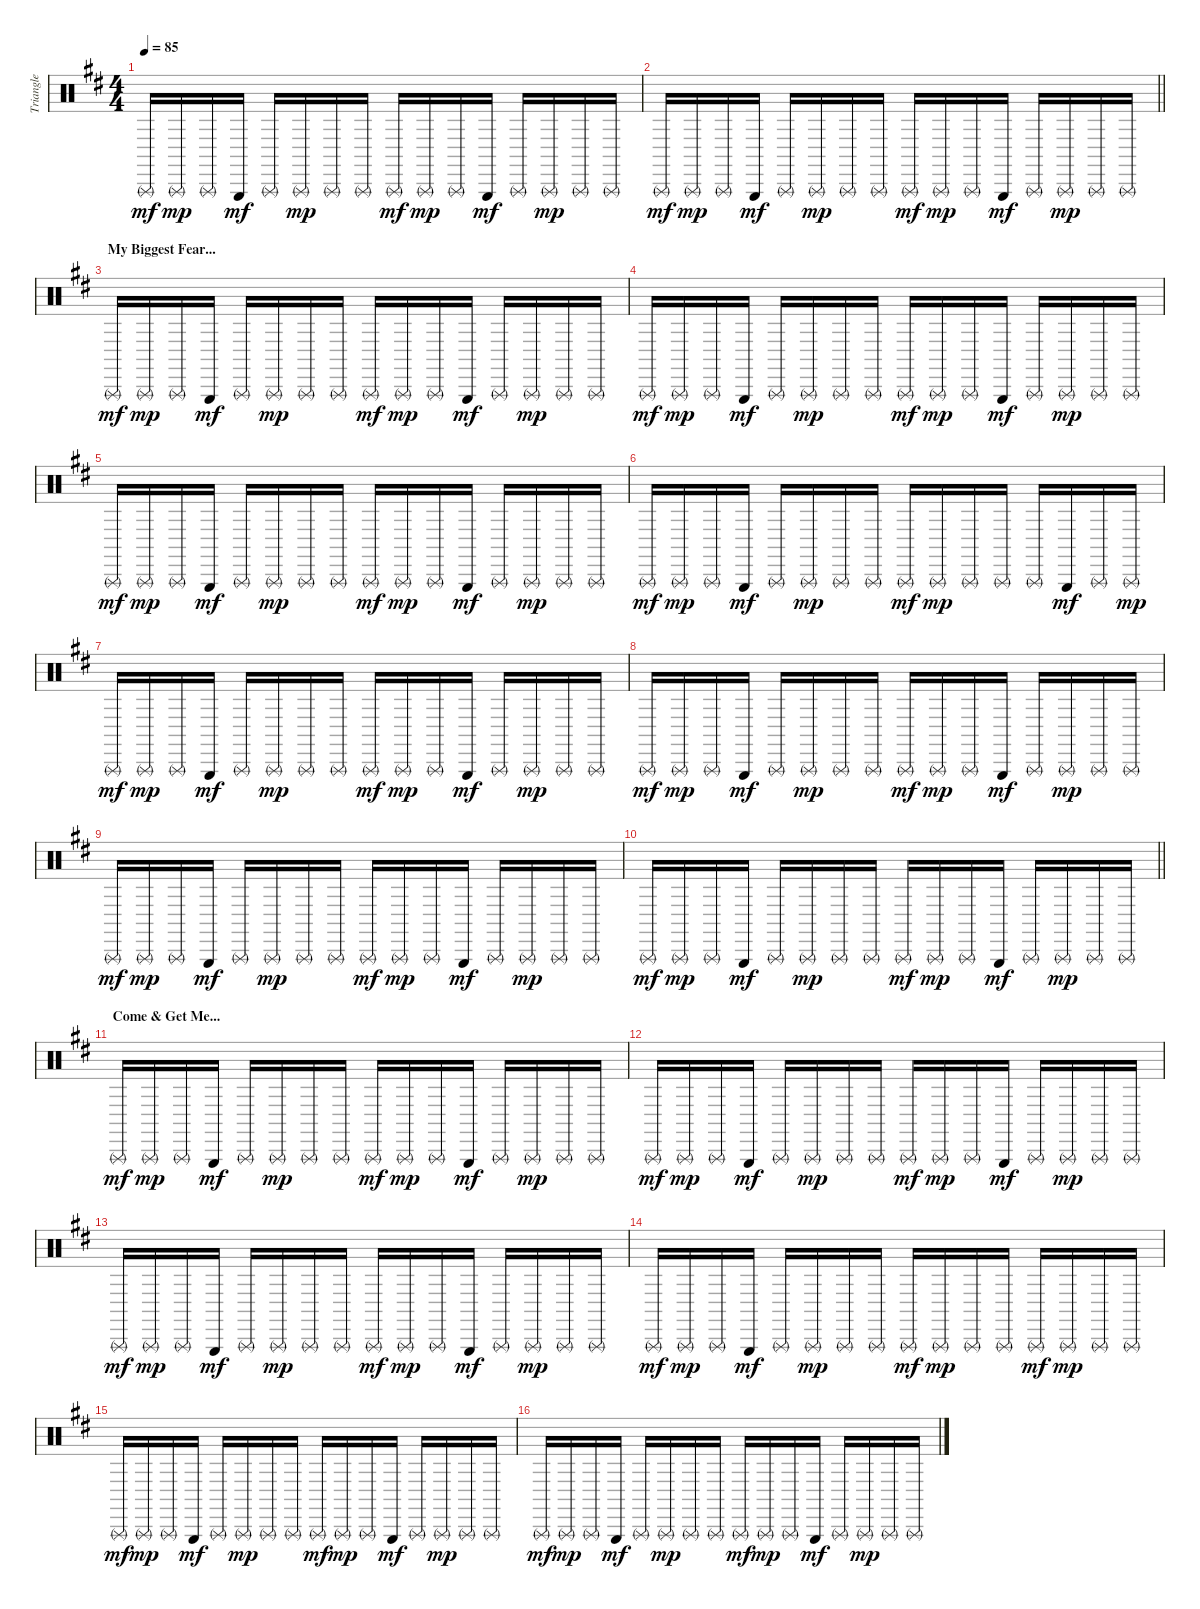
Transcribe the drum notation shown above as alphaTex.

\track ("Triangle" "Triangle") {instrument percussion}
\staff {score}
\articulation defaults
\ts (4 4)
\tempo 85
\clef neutral
\ks bminor "Triangle (rnute)".16{dy mf} "Triangle (rnute)".16{dy mp} "Triangle (rnute)".16 "Triangle (hit)".16{dy mf} "Triangle (rnute)".16 "Triangle (rnute)".16{dy mp} "Triangle (rnute)".16 "Triangle (rnute)".16 "Triangle (rnute)".16{dy mf} "Triangle (rnute)".16{dy mp} "Triangle (rnute)".16 "Triangle (hit)".16{dy mf} "Triangle (rnute)".16 "Triangle (rnute)".16{dy mp} "Triangle (rnute)".16 "Triangle (rnute)".16
|
\barLineRight lightlight "Triangle (rnute)".16{dy mf} "Triangle (rnute)".16{dy mp} "Triangle (rnute)".16 "Triangle (hit)".16{dy mf} "Triangle (rnute)".16 "Triangle (rnute)".16{dy mp} "Triangle (rnute)".16 "Triangle (rnute)".16 "Triangle (rnute)".16{dy mf} "Triangle (rnute)".16{dy mp} "Triangle (rnute)".16 "Triangle (hit)".16{dy mf} "Triangle (rnute)".16 "Triangle (rnute)".16{dy mp} "Triangle (rnute)".16 "Triangle (rnute)".16
|
\section ("" "My Biggest Fear...")
"Triangle (rnute)".16{dy mf} "Triangle (rnute)".16{dy mp} "Triangle (rnute)".16 "Triangle (hit)".16{dy mf} "Triangle (rnute)".16 "Triangle (rnute)".16{dy mp} "Triangle (rnute)".16 "Triangle (rnute)".16 "Triangle (rnute)".16{dy mf} "Triangle (rnute)".16{dy mp} "Triangle (rnute)".16 "Triangle (hit)".16{dy mf} "Triangle (rnute)".16 "Triangle (rnute)".16{dy mp} "Triangle (rnute)".16 "Triangle (rnute)".16 |
"Triangle (rnute)".16{dy mf} "Triangle (rnute)".16{dy mp} "Triangle (rnute)".16 "Triangle (hit)".16{dy mf} "Triangle (rnute)".16 "Triangle (rnute)".16{dy mp} "Triangle (rnute)".16 "Triangle (rnute)".16 "Triangle (rnute)".16{dy mf} "Triangle (rnute)".16{dy mp} "Triangle (rnute)".16 "Triangle (hit)".16{dy mf} "Triangle (rnute)".16 "Triangle (rnute)".16{dy mp} "Triangle (rnute)".16 "Triangle (rnute)".16 |
"Triangle (rnute)".16{dy mf} "Triangle (rnute)".16{dy mp} "Triangle (rnute)".16 "Triangle (hit)".16{dy mf} "Triangle (rnute)".16 "Triangle (rnute)".16{dy mp} "Triangle (rnute)".16 "Triangle (rnute)".16 "Triangle (rnute)".16{dy mf} "Triangle (rnute)".16{dy mp} "Triangle (rnute)".16 "Triangle (hit)".16{dy mf} "Triangle (rnute)".16 "Triangle (rnute)".16{dy mp} "Triangle (rnute)".16 "Triangle (rnute)".16 |
"Triangle (rnute)".16{dy mf} "Triangle (rnute)".16{dy mp} "Triangle (rnute)".16 "Triangle (hit)".16{dy mf} "Triangle (rnute)".16 "Triangle (rnute)".16{dy mp} "Triangle (rnute)".16 "Triangle (rnute)".16 "Triangle (rnute)".16{dy mf} "Triangle (rnute)".16{dy mp} "Triangle (rnute)".16 "Triangle (rnute)".16 "Triangle (rnute)".16 "Triangle (hit)".16{dy mf} "Triangle (rnute)".16 "Triangle (rnute)".16{dy mp} |
"Triangle (rnute)".16{dy mf} "Triangle (rnute)".16{dy mp} "Triangle (rnute)".16 "Triangle (hit)".16{dy mf} "Triangle (rnute)".16 "Triangle (rnute)".16{dy mp} "Triangle (rnute)".16 "Triangle (rnute)".16 "Triangle (rnute)".16{dy mf} "Triangle (rnute)".16{dy mp} "Triangle (rnute)".16 "Triangle (hit)".16{dy mf} "Triangle (rnute)".16 "Triangle (rnute)".16{dy mp} "Triangle (rnute)".16 "Triangle (rnute)".16 |
"Triangle (rnute)".16{dy mf} "Triangle (rnute)".16{dy mp} "Triangle (rnute)".16 "Triangle (hit)".16{dy mf} "Triangle (rnute)".16 "Triangle (rnute)".16{dy mp} "Triangle (rnute)".16 "Triangle (rnute)".16 "Triangle (rnute)".16{dy mf} "Triangle (rnute)".16{dy mp} "Triangle (rnute)".16 "Triangle (hit)".16{dy mf} "Triangle (rnute)".16 "Triangle (rnute)".16{dy mp} "Triangle (rnute)".16 "Triangle (rnute)".16 |
"Triangle (rnute)".16{dy mf} "Triangle (rnute)".16{dy mp} "Triangle (rnute)".16 "Triangle (hit)".16{dy mf} "Triangle (rnute)".16 "Triangle (rnute)".16{dy mp} "Triangle (rnute)".16 "Triangle (rnute)".16 "Triangle (rnute)".16{dy mf} "Triangle (rnute)".16{dy mp} "Triangle (rnute)".16 "Triangle (hit)".16{dy mf} "Triangle (rnute)".16 "Triangle (rnute)".16{dy mp} "Triangle (rnute)".16 "Triangle (rnute)".16 |
\barLineRight lightlight "Triangle (rnute)".16{dy mf} "Triangle (rnute)".16{dy mp} "Triangle (rnute)".16 "Triangle (hit)".16{dy mf} "Triangle (rnute)".16 "Triangle (rnute)".16{dy mp} "Triangle (rnute)".16 "Triangle (rnute)".16 "Triangle (rnute)".16{dy mf} "Triangle (rnute)".16{dy mp} "Triangle (rnute)".16 "Triangle (hit)".16{dy mf} "Triangle (rnute)".16 "Triangle (rnute)".16{dy mp} "Triangle (rnute)".16 "Triangle (rnute)".16
|
\section ("" "Come & Get Me...")
"Triangle (rnute)".16{dy mf} "Triangle (rnute)".16{dy mp} "Triangle (rnute)".16 "Triangle (hit)".16{dy mf} "Triangle (rnute)".16 "Triangle (rnute)".16{dy mp} "Triangle (rnute)".16 "Triangle (rnute)".16 "Triangle (rnute)".16{dy mf} "Triangle (rnute)".16{dy mp} "Triangle (rnute)".16 "Triangle (hit)".16{dy mf} "Triangle (rnute)".16 "Triangle (rnute)".16{dy mp} "Triangle (rnute)".16 "Triangle (rnute)".16 |
"Triangle (rnute)".16{dy mf} "Triangle (rnute)".16{dy mp} "Triangle (rnute)".16 "Triangle (hit)".16{dy mf} "Triangle (rnute)".16 "Triangle (rnute)".16{dy mp} "Triangle (rnute)".16 "Triangle (rnute)".16 "Triangle (rnute)".16{dy mf} "Triangle (rnute)".16{dy mp} "Triangle (rnute)".16 "Triangle (hit)".16{dy mf} "Triangle (rnute)".16 "Triangle (rnute)".16{dy mp} "Triangle (rnute)".16 "Triangle (rnute)".16 |
"Triangle (rnute)".16{dy mf} "Triangle (rnute)".16{dy mp} "Triangle (rnute)".16 "Triangle (hit)".16{dy mf} "Triangle (rnute)".16 "Triangle (rnute)".16{dy mp} "Triangle (rnute)".16 "Triangle (rnute)".16 "Triangle (rnute)".16{dy mf} "Triangle (rnute)".16{dy mp} "Triangle (rnute)".16 "Triangle (hit)".16{dy mf} "Triangle (rnute)".16 "Triangle (rnute)".16{dy mp} "Triangle (rnute)".16 "Triangle (rnute)".16 |
"Triangle (rnute)".16{dy mf} "Triangle (rnute)".16{dy mp} "Triangle (rnute)".16 "Triangle (hit)".16{dy mf} "Triangle (rnute)".16 "Triangle (rnute)".16{dy mp} "Triangle (rnute)".16 "Triangle (rnute)".16 "Triangle (rnute)".16{dy mf} "Triangle (rnute)".16{dy mp} "Triangle (rnute)".16 "Triangle (rnute)".16 "Triangle (rnute)".16{dy mf} "Triangle (rnute)".16{dy mp} "Triangle (rnute)".16 "Triangle (rnute)".16 |
"Triangle (rnute)".16{dy mf} "Triangle (rnute)".16{dy mp} "Triangle (rnute)".16 "Triangle (hit)".16{dy mf} "Triangle (rnute)".16 "Triangle (rnute)".16{dy mp} "Triangle (rnute)".16 "Triangle (rnute)".16 "Triangle (rnute)".16{dy mf} "Triangle (rnute)".16{dy mp} "Triangle (rnute)".16 "Triangle (hit)".16{dy mf} "Triangle (rnute)".16 "Triangle (rnute)".16{dy mp} "Triangle (rnute)".16 "Triangle (rnute)".16 |
"Triangle (rnute)".16{dy mf} "Triangle (rnute)".16{dy mp} "Triangle (rnute)".16 "Triangle (hit)".16{dy mf} "Triangle (rnute)".16 "Triangle (rnute)".16{dy mp} "Triangle (rnute)".16 "Triangle (rnute)".16 "Triangle (rnute)".16{dy mf} "Triangle (rnute)".16{dy mp} "Triangle (rnute)".16 "Triangle (hit)".16{dy mf} "Triangle (rnute)".16 "Triangle (rnute)".16{dy mp} "Triangle (rnute)".16 "Triangle (rnute)".16
